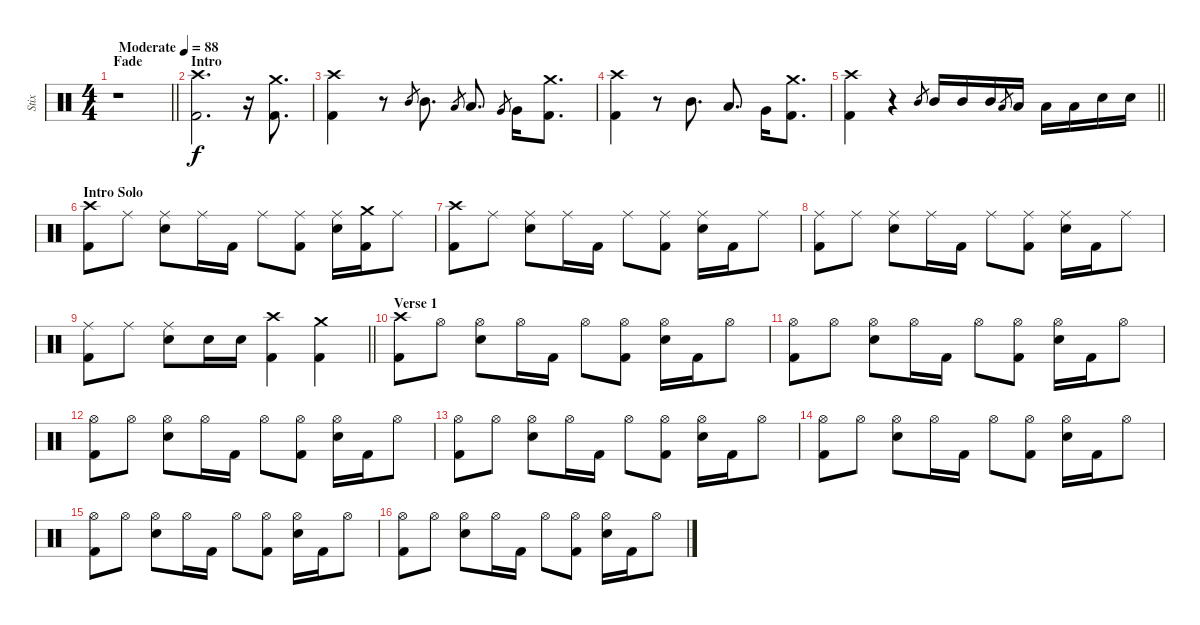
\track ("Stix" "Stix") {instrument percussion}
\staff {score}
\articulation defaults
\ts (4 4)
\section ("" "Fade")
\tempo (88 "Moderate")
\clef neutral
\barLineRight lightlight
\ks c
r.1{dy f} |
\section ("" "Intro")
("Crash high (hit)" "Kick (hit) 2").2{d} r.16 ("Crash medium (hit)" "Kick (hit) 2").8{d} |
("Crash high (hit)" "Kick (hit) 2").4 r.8 "Mid Tom (hit)".8{gr} "Mid Tom (hit)".8{d} "Low Tom (hit)".8{gr} "Low Tom (hit)".8{d} "Very Low Tom (hit)".8{gr} "Very Low Tom (hit)".16 ("Crash medium (hit)" "Kick (hit) 2").8{d} |
("Crash high (hit)" "Kick (hit) 2").4 r.8 "Mid Tom (hit)".8{d} "Low Tom (hit)".8{d} "Very Low Tom (hit)".16 ("Crash medium (hit)" "Kick (hit) 2").8{d} |
\barLineRight lightlight
("Crash high (hit)" "Kick (hit) 2").4 r.4 "Mid Tom (hit)".8{gr} "Mid Tom (hit)".16 "Mid Tom (hit)".16 "Mid Tom (hit)".16 "Low Tom (hit)".8{gr} "Low Tom (hit)".16 "Low Tom (hit)".16 "Low Tom (hit)".16 "Electric Snare (hit)".16 "Electric Snare (hit)".16 |
\section ("" "Intro Solo")
("Crash high (hit)" "Kick (hit) 2").8 "Ride (middle)".8 ("Ride (middle)" "Electric Snare (hit)").8 "Ride (middle)".16 "Kick (hit) 2".16 "Ride (middle)".8 ("Ride (middle)" "Kick (hit) 2").8 ("Ride (middle)" "Electric Snare (hit)").16 ("Crash medium (hit)" "Kick (hit) 2").16 "Ride (middle)".8 |
("Crash high (hit)" "Kick (hit) 2").8 "Ride (middle)".8 ("Ride (middle)" "Electric Snare (hit)").8 "Ride (middle)".16 "Kick (hit) 2".16 "Ride (middle)".8 ("Ride (middle)" "Kick (hit) 2").8 ("Ride (middle)" "Electric Snare (hit)").16 "Kick (hit) 2".16 "Ride (middle)".8 |
("Ride (middle)" "Kick (hit) 2").8 "Ride (middle)".8 ("Ride (middle)" "Electric Snare (hit)").8 "Ride (middle)".16 "Kick (hit) 2".16 "Ride (middle)".8 ("Ride (middle)" "Kick (hit) 2").8 ("Ride (middle)" "Electric Snare (hit)").16 "Kick (hit) 2".16 "Ride (middle)".8 |
\barLineRight lightlight
("Ride (middle)" "Kick (hit) 2").8 "Ride (middle)".8 ("Ride (middle)" "Electric Snare (hit)").8 "Electric Snare (hit)".16 "Electric Snare (hit)".16 ("Crash high (hit)" "Kick (hit) 2").4 ("Crash medium (hit)" "Kick (hit) 2").4 |
\section ("" "Verse 1")
("Crash high (hit)" "Kick (hit) 2").8 "Hi-Hat (open)".8 ("Hi-Hat (open)" "Electric Snare (hit)").8 "Hi-Hat (open)".16 "Kick (hit) 2".16 "Hi-Hat (open)".8 ("Hi-Hat (open)" "Kick (hit) 2").8 ("Hi-Hat (open)" "Electric Snare (hit)").16 "Kick (hit) 2".16 "Hi-Hat (open)".8 |
("Hi-Hat (open)" "Kick (hit) 2").8 "Hi-Hat (open)".8 ("Hi-Hat (open)" "Electric Snare (hit)").8 "Hi-Hat (open)".16 "Kick (hit) 2".16 "Hi-Hat (open)".8 ("Hi-Hat (open)" "Kick (hit) 2").8 ("Hi-Hat (open)" "Electric Snare (hit)").16 "Kick (hit) 2".16 "Hi-Hat (open)".8 |
("Hi-Hat (open)" "Kick (hit) 2").8 "Hi-Hat (open)".8 ("Hi-Hat (open)" "Electric Snare (hit)").8 "Hi-Hat (open)".16 "Kick (hit) 2".16 "Hi-Hat (open)".8 ("Hi-Hat (open)" "Kick (hit) 2").8 ("Hi-Hat (open)" "Electric Snare (hit)").16 "Kick (hit) 2".16 "Hi-Hat (open)".8 |
("Hi-Hat (open)" "Kick (hit) 2").8 "Hi-Hat (open)".8 ("Hi-Hat (open)" "Electric Snare (hit)").8 "Hi-Hat (open)".16 "Kick (hit) 2".16 "Hi-Hat (open)".8 ("Hi-Hat (open)" "Kick (hit) 2").8 ("Hi-Hat (open)" "Electric Snare (hit)").16 "Kick (hit) 2".16 "Hi-Hat (open)".8 |
("Hi-Hat (open)" "Kick (hit) 2").8 "Hi-Hat (open)".8 ("Hi-Hat (open)" "Electric Snare (hit)").8 "Hi-Hat (open)".16 "Kick (hit) 2".16 "Hi-Hat (open)".8 ("Hi-Hat (open)" "Kick (hit) 2").8 ("Hi-Hat (open)" "Electric Snare (hit)").16 "Kick (hit) 2".16 "Hi-Hat (open)".8 |
("Hi-Hat (open)" "Kick (hit) 2").8 "Hi-Hat (open)".8 ("Hi-Hat (open)" "Electric Snare (hit)").8 "Hi-Hat (open)".16 "Kick (hit) 2".16 "Hi-Hat (open)".8 ("Hi-Hat (open)" "Kick (hit) 2").8 ("Hi-Hat (open)" "Electric Snare (hit)").16 "Kick (hit) 2".16 "Hi-Hat (open)".8 |
("Hi-Hat (open)" "Kick (hit) 2").8 "Hi-Hat (open)".8 ("Hi-Hat (open)" "Electric Snare (hit)").8 "Hi-Hat (open)".16 "Kick (hit) 2".16 "Hi-Hat (open)".8 ("Hi-Hat (open)" "Kick (hit) 2").8 ("Hi-Hat (open)" "Electric Snare (hit)").16 "Kick (hit) 2".16 "Hi-Hat (open)".8
